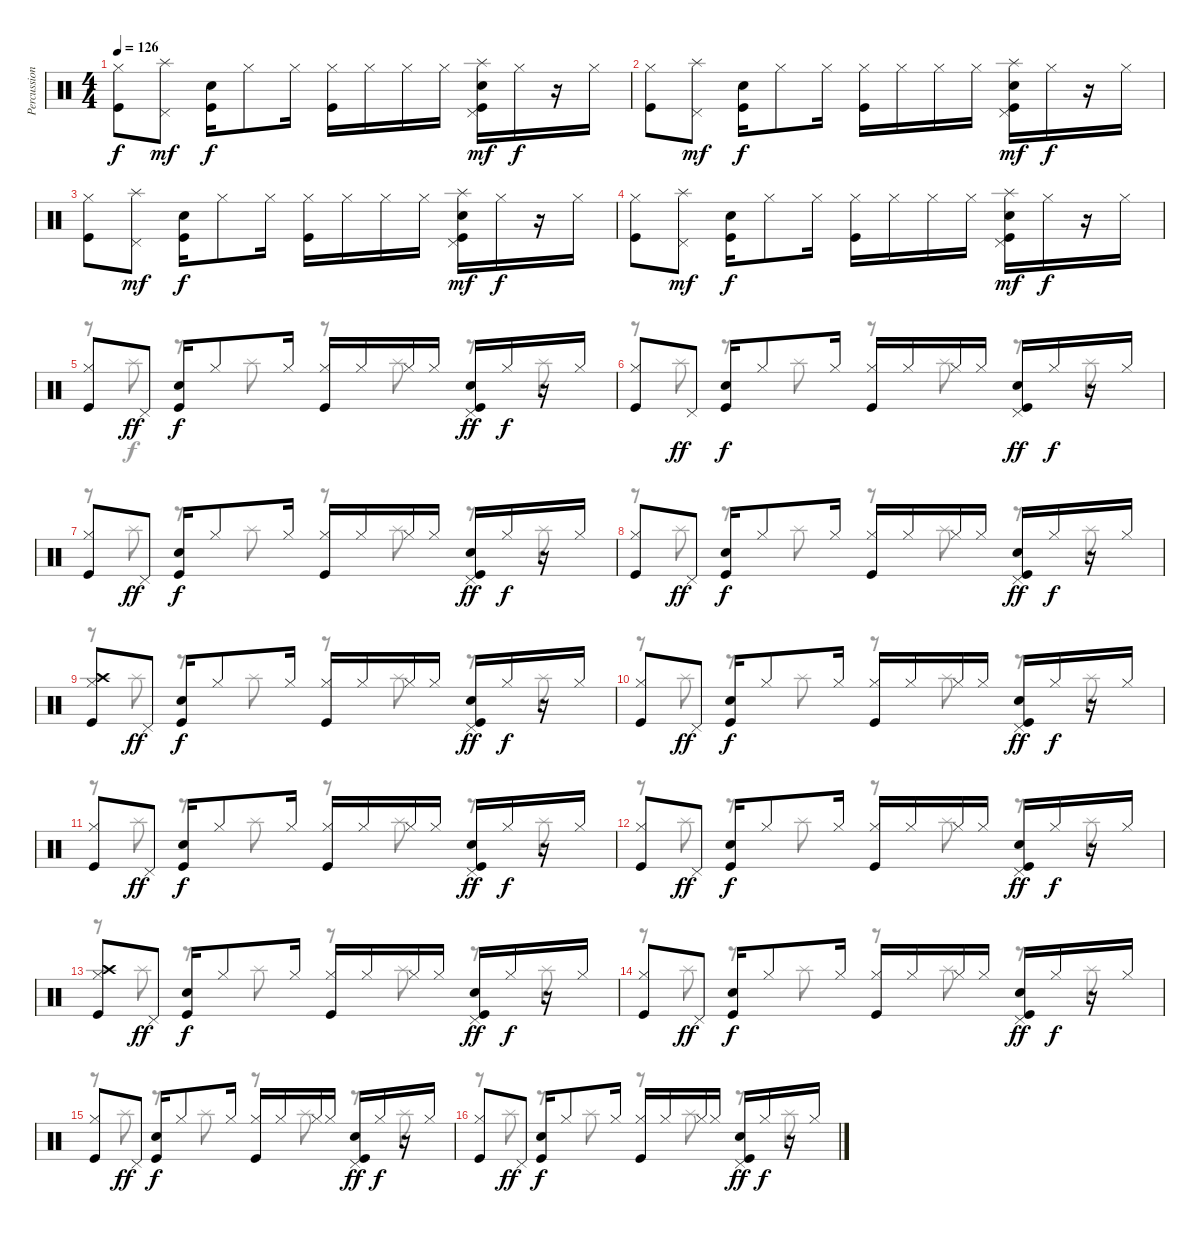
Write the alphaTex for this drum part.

\track ("Percussion" "Percussion") {instrument percussion}
\staff {score}
\articulation defaults
\voice
\ts (4 4)
\tempo 126
\clef neutral
\ks c
("Kick (hit)" "Hi-Hat (closed)").8{dy f} ("Pedal Hi-Hat (hit)" "Splash (hit)").8{dy mf} ("Kick (hit)" "Snare (hit) 2").16{dy f} "Hi-Hat (closed)".8 "Hi-Hat (closed)".16 ("Kick (hit)" "Hi-Hat (closed)").16 "Hi-Hat (closed)".16 "Hi-Hat (closed)".16 "Hi-Hat (closed)".16 ("Kick (hit)" "Snare (hit) 2" "Pedal Hi-Hat (hit)" "Splash (hit)").16{dy mf} "Hi-Hat (closed)".16{dy f} r.16 "Hi-Hat (closed)".16 |
("Kick (hit)" "Hi-Hat (closed)").8 ("Pedal Hi-Hat (hit)" "Splash (hit)").8{dy mf} ("Kick (hit)" "Snare (hit) 2").16{dy f} "Hi-Hat (closed)".8 "Hi-Hat (closed)".16 ("Kick (hit)" "Hi-Hat (closed)").16 "Hi-Hat (closed)".16 "Hi-Hat (closed)".16 "Hi-Hat (closed)".16 ("Kick (hit)" "Snare (hit) 2" "Pedal Hi-Hat (hit)" "Splash (hit)").16{dy mf} "Hi-Hat (closed)".16{dy f} r.16 "Hi-Hat (closed)".16 |
("Kick (hit)" "Hi-Hat (closed)").8 ("Pedal Hi-Hat (hit)" "Splash (hit)").8{dy mf} ("Kick (hit)" "Snare (hit) 2").16{dy f} "Hi-Hat (closed)".8 "Hi-Hat (closed)".16 ("Kick (hit)" "Hi-Hat (closed)").16 "Hi-Hat (closed)".16 "Hi-Hat (closed)".16 "Hi-Hat (closed)".16 ("Kick (hit)" "Snare (hit) 2" "Pedal Hi-Hat (hit)" "Splash (hit)").16{dy mf} "Hi-Hat (closed)".16{dy f} r.16 "Hi-Hat (closed)".16 |
("Kick (hit)" "Hi-Hat (closed)").8 ("Pedal Hi-Hat (hit)" "Splash (hit)").8{dy mf} ("Kick (hit)" "Snare (hit) 2").16{dy f} "Hi-Hat (closed)".8 "Hi-Hat (closed)".16 ("Kick (hit)" "Hi-Hat (closed)").16 "Hi-Hat (closed)".16 "Hi-Hat (closed)".16 "Hi-Hat (closed)".16 ("Kick (hit)" "Snare (hit) 2" "Pedal Hi-Hat (hit)" "Splash (hit)").16{dy mf} "Hi-Hat (closed)".16{dy f} r.16 "Hi-Hat (closed)".16 |
("Kick (hit)" "Hi-Hat (closed)").8 "Pedal Hi-Hat (hit)".8{dy ff} ("Kick (hit)" "Snare (hit) 2").16{dy f} "Hi-Hat (closed)".8 "Hi-Hat (closed)".16 ("Kick (hit)" "Hi-Hat (closed)").16 "Hi-Hat (closed)".16 "Hi-Hat (closed)".16 "Hi-Hat (closed)".16 ("Kick (hit)" "Snare (hit) 2" "Pedal Hi-Hat (hit)").16{dy ff} "Hi-Hat (closed)".16{dy f} r.16 "Hi-Hat (closed)".16 |
("Kick (hit)" "Hi-Hat (closed)").8 "Pedal Hi-Hat (hit)".8{dy ff} ("Kick (hit)" "Snare (hit) 2").16{dy f} "Hi-Hat (closed)".8 "Hi-Hat (closed)".16 ("Kick (hit)" "Hi-Hat (closed)").16 "Hi-Hat (closed)".16 "Hi-Hat (closed)".16 "Hi-Hat (closed)".16 ("Kick (hit)" "Snare (hit) 2" "Pedal Hi-Hat (hit)").16{dy ff} "Hi-Hat (closed)".16{dy f} r.16 "Hi-Hat (closed)".16 |
("Kick (hit)" "Hi-Hat (closed)").8 "Pedal Hi-Hat (hit)".8{dy ff} ("Kick (hit)" "Snare (hit) 2").16{dy f} "Hi-Hat (closed)".8 "Hi-Hat (closed)".16 ("Kick (hit)" "Hi-Hat (closed)").16 "Hi-Hat (closed)".16 "Hi-Hat (closed)".16 "Hi-Hat (closed)".16 ("Kick (hit)" "Snare (hit) 2" "Pedal Hi-Hat (hit)").16{dy ff} "Hi-Hat (closed)".16{dy f} r.16 "Hi-Hat (closed)".16 |
("Kick (hit)" "Hi-Hat (closed)").8 "Pedal Hi-Hat (hit)".8{dy ff} ("Kick (hit)" "Snare (hit) 2").16{dy f} "Hi-Hat (closed)".8 "Hi-Hat (closed)".16 ("Kick (hit)" "Hi-Hat (closed)").16 "Hi-Hat (closed)".16 "Hi-Hat (closed)".16 "Hi-Hat (closed)".16 ("Kick (hit)" "Snare (hit) 2" "Pedal Hi-Hat (hit)").16{dy ff} "Hi-Hat (closed)".16{dy f} r.16 "Hi-Hat (closed)".16 |
("Kick (hit)" "Hi-Hat (closed)" "Crash high (hit)").8 "Pedal Hi-Hat (hit)".8{dy ff} ("Kick (hit)" "Snare (hit) 2").16{dy f} "Hi-Hat (closed)".8 "Hi-Hat (closed)".16 ("Kick (hit)" "Hi-Hat (closed)").16 "Hi-Hat (closed)".16 "Hi-Hat (closed)".16 "Hi-Hat (closed)".16 ("Kick (hit)" "Snare (hit) 2" "Pedal Hi-Hat (hit)").16{dy ff} "Hi-Hat (closed)".16{dy f} r.16 "Hi-Hat (closed)".16 |
("Kick (hit)" "Hi-Hat (closed)").8 "Pedal Hi-Hat (hit)".8{dy ff} ("Kick (hit)" "Snare (hit) 2").16{dy f} "Hi-Hat (closed)".8 "Hi-Hat (closed)".16 ("Kick (hit)" "Hi-Hat (closed)").16 "Hi-Hat (closed)".16 "Hi-Hat (closed)".16 "Hi-Hat (closed)".16 ("Kick (hit)" "Snare (hit) 2" "Pedal Hi-Hat (hit)").16{dy ff} "Hi-Hat (closed)".16{dy f} r.16 "Hi-Hat (closed)".16 |
("Kick (hit)" "Hi-Hat (closed)").8 "Pedal Hi-Hat (hit)".8{dy ff} ("Kick (hit)" "Snare (hit) 2").16{dy f} "Hi-Hat (closed)".8 "Hi-Hat (closed)".16 ("Kick (hit)" "Hi-Hat (closed)").16 "Hi-Hat (closed)".16 "Hi-Hat (closed)".16 "Hi-Hat (closed)".16 ("Kick (hit)" "Snare (hit) 2" "Pedal Hi-Hat (hit)").16{dy ff} "Hi-Hat (closed)".16{dy f} r.16 "Hi-Hat (closed)".16 |
("Kick (hit)" "Hi-Hat (closed)").8 "Pedal Hi-Hat (hit)".8{dy ff} ("Kick (hit)" "Snare (hit) 2").16{dy f} "Hi-Hat (closed)".8 "Hi-Hat (closed)".16 ("Kick (hit)" "Hi-Hat (closed)").16 "Hi-Hat (closed)".16 "Hi-Hat (closed)".16 "Hi-Hat (closed)".16 ("Kick (hit)" "Snare (hit) 2" "Pedal Hi-Hat (hit)").16{dy ff} "Hi-Hat (closed)".16{dy f} r.16 "Hi-Hat (closed)".16 |
("Kick (hit)" "Hi-Hat (closed)" "Crash high (hit)").8 "Pedal Hi-Hat (hit)".8{dy ff} ("Kick (hit)" "Snare (hit) 2").16{dy f} "Hi-Hat (closed)".8 "Hi-Hat (closed)".16 ("Kick (hit)" "Hi-Hat (closed)").16 "Hi-Hat (closed)".16 "Hi-Hat (closed)".16 "Hi-Hat (closed)".16 ("Kick (hit)" "Snare (hit) 2" "Pedal Hi-Hat (hit)").16{dy ff} "Hi-Hat (closed)".16{dy f} r.16 "Hi-Hat (closed)".16 |
("Kick (hit)" "Hi-Hat (closed)").8 "Pedal Hi-Hat (hit)".8{dy ff} ("Kick (hit)" "Snare (hit) 2").16{dy f} "Hi-Hat (closed)".8 "Hi-Hat (closed)".16 ("Kick (hit)" "Hi-Hat (closed)").16 "Hi-Hat (closed)".16 "Hi-Hat (closed)".16 "Hi-Hat (closed)".16 ("Kick (hit)" "Snare (hit) 2" "Pedal Hi-Hat (hit)").16{dy ff} "Hi-Hat (closed)".16{dy f} r.16 "Hi-Hat (closed)".16 |
("Kick (hit)" "Hi-Hat (closed)").8 "Pedal Hi-Hat (hit)".8{dy ff} ("Kick (hit)" "Snare (hit) 2").16{dy f} "Hi-Hat (closed)".8 "Hi-Hat (closed)".16 ("Kick (hit)" "Hi-Hat (closed)").16 "Hi-Hat (closed)".16 "Hi-Hat (closed)".16 "Hi-Hat (closed)".16 ("Kick (hit)" "Snare (hit) 2" "Pedal Hi-Hat (hit)").16{dy ff} "Hi-Hat (closed)".16{dy f} r.16 "Hi-Hat (closed)".16 |
("Kick (hit)" "Hi-Hat (closed)").8 "Pedal Hi-Hat (hit)".8{dy ff} ("Kick (hit)" "Snare (hit) 2").16{dy f} "Hi-Hat (closed)".8 "Hi-Hat (closed)".16 ("Kick (hit)" "Hi-Hat (closed)").16 "Hi-Hat (closed)".16 "Hi-Hat (closed)".16 "Hi-Hat (closed)".16 ("Kick (hit)" "Snare (hit) 2" "Pedal Hi-Hat (hit)").16{dy ff} "Hi-Hat (closed)".16{dy f} r.16 "Hi-Hat (closed)".16
\voice
\clef neutral
\ottava regular
\simile none
\ks c
|
|
|
|
r.8 "Splash (hit)".8 r.8 "Splash (hit)".8 r.8 "Splash (hit)".8 r.8 "Splash (hit)".8 |
r.8 "Splash (hit)".8 r.8 "Splash (hit)".8 r.8 "Splash (hit)".8 r.8 "Splash (hit)".8 |
r.8 "Splash (hit)".8 r.8 "Splash (hit)".8 r.8 "Splash (hit)".8 r.8 "Splash (hit)".8 |
r.8 "Splash (hit)".8 r.8 "Splash (hit)".8 r.8 "Splash (hit)".8 r.8 "Splash (hit)".8 |
r.8 "Splash (hit)".8 r.8 "Splash (hit)".8 r.8 "Splash (hit)".8 r.8 "Splash (hit)".8 |
r.8 "Splash (hit)".8 r.8 "Splash (hit)".8 r.8 "Splash (hit)".8 r.8 "Splash (hit)".8 |
r.8 "Splash (hit)".8 r.8 "Splash (hit)".8 r.8 "Splash (hit)".8 r.8 "Splash (hit)".8 |
r.8 "Splash (hit)".8 r.8 "Splash (hit)".8 r.8 "Splash (hit)".8 r.8 "Splash (hit)".8 |
r.8 "Splash (hit)".8 r.8 "Splash (hit)".8 r.8 "Splash (hit)".8 r.8 "Splash (hit)".8 |
r.8 "Splash (hit)".8 r.8 "Splash (hit)".8 r.8 "Splash (hit)".8 r.8 "Splash (hit)".8 |
r.8 "Splash (hit)".8 r.8 "Splash (hit)".8 r.8 "Splash (hit)".8 r.8 "Splash (hit)".8 |
r.8 "Splash (hit)".8 r.8 "Splash (hit)".8 r.8 "Splash (hit)".8 r.8 "Splash (hit)".8
